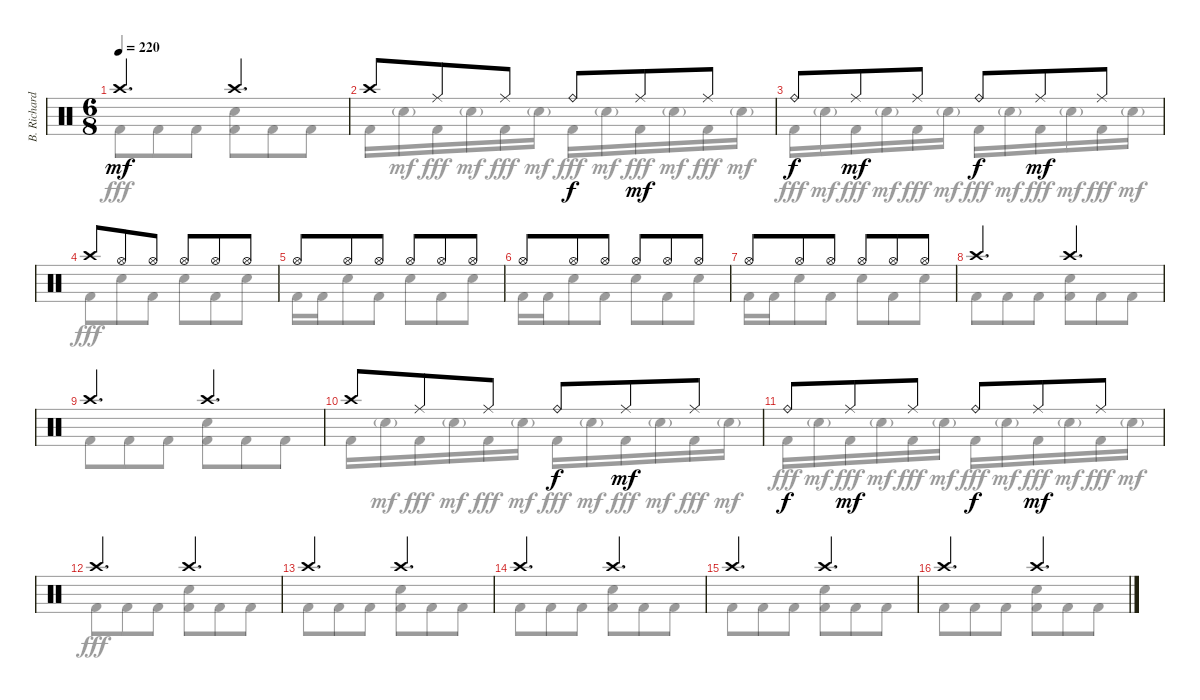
\track ("B. Richardson Drums" "B. Richard") {instrument percussion}
\staff {score}
\articulation defaults
\voice
\ts (6 8)
\tempo 220
\clef neutral
\ks c "Crash high (hit)".4{d dy mf} "Crash high (hit)".4{d}
|
"Crash high (hit)".8 "Ride (middle)".8 "Ride (middle)".8 "Ride (bell)".8{dy f} "Ride (middle)".8{dy mf} "Ride (middle)".8 |
"Ride (bell)".8{dy f} "Ride (middle)".8{dy mf} "Ride (middle)".8 "Ride (bell)".8{dy f} "Ride (middle)".8{dy mf} "Ride (middle)".8 |
"Crash high (hit)".8 "Hi-Hat (open)".8 "Hi-Hat (open)".8 "Hi-Hat (open)".8 "Hi-Hat (open)".8 "Hi-Hat (open)".8 |
"Hi-Hat (open)".8 "Hi-Hat (open)".8 "Hi-Hat (open)".8 "Hi-Hat (open)".8 "Hi-Hat (open)".8 "Hi-Hat (open)".8 |
"Hi-Hat (open)".8 "Hi-Hat (open)".8 "Hi-Hat (open)".8 "Hi-Hat (open)".8 "Hi-Hat (open)".8 "Hi-Hat (open)".8 |
"Hi-Hat (open)".8 "Hi-Hat (open)".8 "Hi-Hat (open)".8 "Hi-Hat (open)".8 "Hi-Hat (open)".8 "Hi-Hat (open)".8 |
"Crash high (hit)".4{d} "Crash high (hit)".4{d} |
"Crash high (hit)".4{d} "Crash high (hit)".4{d} |
"Crash high (hit)".8 "Ride (middle)".8 "Ride (middle)".8 "Ride (bell)".8{dy f} "Ride (middle)".8{dy mf} "Ride (middle)".8 |
"Ride (bell)".8{dy f} "Ride (middle)".8{dy mf} "Ride (middle)".8 "Ride (bell)".8{dy f} "Ride (middle)".8{dy mf} "Ride (middle)".8 |
"Crash high (hit)".4{d} "Crash high (hit)".4{d} |
"Crash high (hit)".4{d} "Crash high (hit)".4{d} |
"Crash high (hit)".4{d} "Crash high (hit)".4{d} |
"Crash high (hit)".4{d} "Crash high (hit)".4{d} |
"Crash high (hit)".4{d} "Crash high (hit)".4{d}
\voice
\clef neutral
\ottava regular
\simile none
\ks c "Kick (hit) 2".8{dy fff} "Kick (hit) 2".8 "Kick (hit) 2".8
("Electric Snare (hit)" "Kick (hit) 2").8 "Kick (hit) 2".8 "Kick (hit) 2".8 |
"Kick (hit) 2".16 "Electric Snare (hit)"{g}.16{dy mf} "Kick (hit) 2".16{dy fff} "Electric Snare (hit)"{g}.16{dy mf} "Kick (hit) 2".16{dy fff} "Electric Snare (hit)"{g}.16{dy mf} "Kick (hit) 2".16{dy fff} "Electric Snare (hit)"{g}.16{dy mf} "Kick (hit) 2".16{dy fff} "Electric Snare (hit)"{g}.16{dy mf} "Kick (hit) 2".16{dy fff} "Electric Snare (hit)"{g}.16{dy mf} |
"Kick (hit) 2".16{dy fff} "Electric Snare (hit)"{g}.16{dy mf} "Kick (hit) 2".16{dy fff} "Electric Snare (hit)"{g}.16{dy mf} "Kick (hit) 2".16{dy fff} "Electric Snare (hit)"{g}.16{dy mf} "Kick (hit) 2".16{dy fff} "Electric Snare (hit)"{g}.16{dy mf} "Kick (hit) 2".16{dy fff} "Electric Snare (hit)"{g}.16{dy mf} "Kick (hit) 2".16{dy fff} "Electric Snare (hit)"{g}.16{dy mf} |
"Kick (hit) 2".8{dy fff} "Electric Snare (hit)".8 "Kick (hit) 2".8 "Electric Snare (hit)".8 "Kick (hit) 2".8 "Electric Snare (hit)".8 |
"Kick (hit) 2".16 "Kick (hit) 2".16 "Electric Snare (hit)".8 "Kick (hit) 2".8 "Electric Snare (hit)".8 "Kick (hit) 2".8 "Electric Snare (hit)".8 |
"Kick (hit) 2".16 "Kick (hit) 2".16 "Electric Snare (hit)".8 "Kick (hit) 2".8 "Electric Snare (hit)".8 "Kick (hit) 2".8 "Electric Snare (hit)".8 |
"Kick (hit) 2".16 "Kick (hit) 2".16 "Electric Snare (hit)".8 "Kick (hit) 2".8 "Electric Snare (hit)".8 "Kick (hit) 2".8 "Electric Snare (hit)".8 |
"Kick (hit) 2".8 "Kick (hit) 2".8 "Kick (hit) 2".8 ("Electric Snare (hit)" "Kick (hit) 2").8 "Kick (hit) 2".8 "Kick (hit) 2".8 |
"Kick (hit) 2".8 "Kick (hit) 2".8 "Kick (hit) 2".8 ("Electric Snare (hit)" "Kick (hit) 2").8 "Kick (hit) 2".8 "Kick (hit) 2".8 |
"Kick (hit) 2".16 "Electric Snare (hit)"{g}.16{dy mf} "Kick (hit) 2".16{dy fff} "Electric Snare (hit)"{g}.16{dy mf} "Kick (hit) 2".16{dy fff} "Electric Snare (hit)"{g}.16{dy mf} "Kick (hit) 2".16{dy fff} "Electric Snare (hit)"{g}.16{dy mf} "Kick (hit) 2".16{dy fff} "Electric Snare (hit)"{g}.16{dy mf} "Kick (hit) 2".16{dy fff} "Electric Snare (hit)"{g}.16{dy mf} |
"Kick (hit) 2".16{dy fff} "Electric Snare (hit)"{g}.16{dy mf} "Kick (hit) 2".16{dy fff} "Electric Snare (hit)"{g}.16{dy mf} "Kick (hit) 2".16{dy fff} "Electric Snare (hit)"{g}.16{dy mf} "Kick (hit) 2".16{dy fff} "Electric Snare (hit)"{g}.16{dy mf} "Kick (hit) 2".16{dy fff} "Electric Snare (hit)"{g}.16{dy mf} "Kick (hit) 2".16{dy fff} "Electric Snare (hit)"{g}.16{dy mf} |
"Kick (hit) 2".8{dy fff} "Kick (hit) 2".8 "Kick (hit) 2".8 ("Electric Snare (hit)" "Kick (hit) 2").8 "Kick (hit) 2".8 "Kick (hit) 2".8 |
"Kick (hit) 2".8 "Kick (hit) 2".8 "Kick (hit) 2".8 ("Electric Snare (hit)" "Kick (hit) 2").8 "Kick (hit) 2".8 "Kick (hit) 2".8 |
"Kick (hit) 2".8 "Kick (hit) 2".8 "Kick (hit) 2".8 ("Electric Snare (hit)" "Kick (hit) 2").8 "Kick (hit) 2".8 "Kick (hit) 2".8 |
"Kick (hit) 2".8 "Kick (hit) 2".8 "Kick (hit) 2".8 ("Electric Snare (hit)" "Kick (hit) 2").8 "Kick (hit) 2".8 "Kick (hit) 2".8 |
"Kick (hit) 2".8 "Kick (hit) 2".8 "Kick (hit) 2".8 ("Electric Snare (hit)" "Kick (hit) 2").8 "Kick (hit) 2".8 "Kick (hit) 2".8
